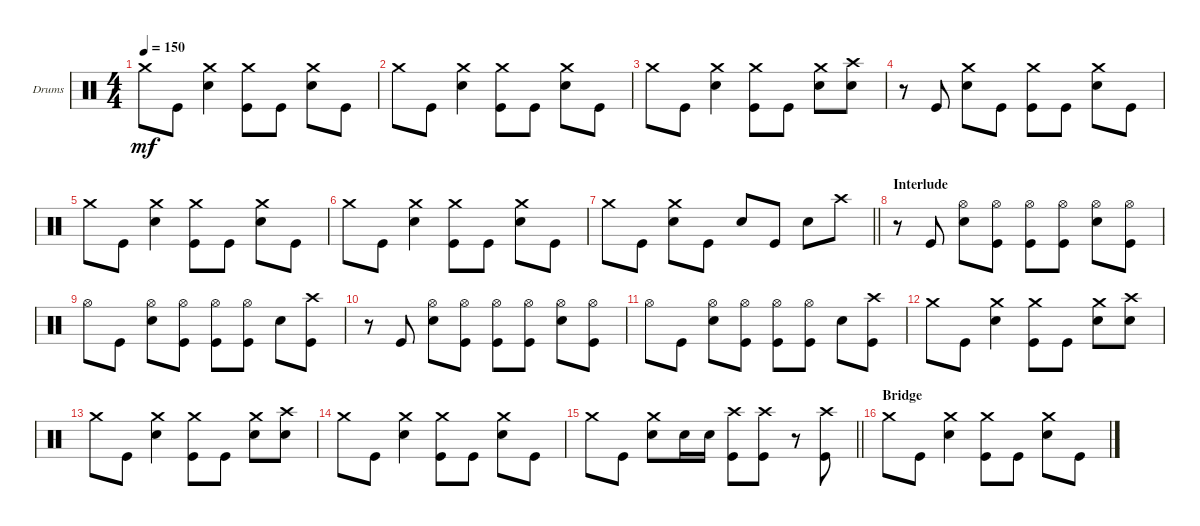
\defaultSystemsLayout 4
\bracketExtendMode groupsimilarinstruments
\firstSystemTrackNameOrientation horizontal
\otherSystemsTrackNameOrientation horizontal
\track ("Drums" "Drums") {instrument percussion}
\staff {score}
\articulation defaults
\ts (4 4)
\tempo 150
\clef neutral
\ks c "Crash medium (hit)".8{dy mf} "Kick (hit)".8
("Snare (hit) 2" "Crash medium (hit)").4 ("Kick (hit)" "Crash medium (hit)").8 "Kick (hit)".8 ("Snare (hit) 2" "Crash medium (hit)").8 "Kick (hit)".8 |
"Crash medium (hit)".8 "Kick (hit)".8 ("Snare (hit) 2" "Crash medium (hit)").4 ("Kick (hit)" "Crash medium (hit)").8 "Kick (hit)".8 ("Snare (hit) 2" "Crash medium (hit)").8 "Kick (hit)".8 |
"Crash medium (hit)".8 "Kick (hit)".8 ("Snare (hit) 2" "Crash medium (hit)").4 ("Kick (hit)" "Crash medium (hit)").8 "Kick (hit)".8 ("Snare (hit) 2" "Crash medium (hit)").8 ("Snare (hit) 2" "Crash high (hit)").8 |
r.8 "Kick (hit)".8 ("Snare (hit) 2" "Crash medium (hit)").8 "Kick (hit)".8 ("Kick (hit)" "Crash medium (hit)").8 "Kick (hit)".8 ("Snare (hit) 2" "Crash medium (hit)").8 "Kick (hit)".8 |
"Crash medium (hit)".8 "Kick (hit)".8 ("Snare (hit) 2" "Crash medium (hit)").4 ("Kick (hit)" "Crash medium (hit)").8 "Kick (hit)".8 ("Snare (hit) 2" "Crash medium (hit)").8 "Kick (hit)".8 |
"Crash medium (hit)".8 "Kick (hit)".8 ("Snare (hit) 2" "Crash medium (hit)").4 ("Kick (hit)" "Crash medium (hit)").8 "Kick (hit)".8 ("Snare (hit) 2" "Crash medium (hit)").8 "Kick (hit)".8 |
\barLineRight lightlight "Crash medium (hit)".8 "Kick (hit)".8
("Snare (hit) 2" "Crash medium (hit)").8 "Kick (hit)".8 "Snare (hit) 2".8 "Kick (hit)".8 "Snare (hit) 2".8 "Crash high (hit)".8 |
\section ("" "Interlude")
r.8 "Kick (hit)".8 ("Snare (hit) 2" "Hi-Hat (open)").8 ("Kick (hit)" "Hi-Hat (open)").8 ("Kick (hit)" "Hi-Hat (open)").8 ("Kick (hit)" "Hi-Hat (open)").8 ("Snare (hit) 2" "Hi-Hat (open)").8 ("Kick (hit)" "Hi-Hat (open)").8 |
"Hi-Hat (open)".8 "Kick (hit)".8 ("Snare (hit) 2" "Hi-Hat (open)").8 ("Kick (hit)" "Hi-Hat (open)").8 ("Kick (hit)" "Hi-Hat (open)").8 ("Kick (hit)" "Hi-Hat (open)").8 "Snare (hit) 2".8 ("Kick (hit)" "Crash high (hit)").8 |
r.8 "Kick (hit)".8 ("Snare (hit) 2" "Hi-Hat (open)").8 ("Kick (hit)" "Hi-Hat (open)").8 ("Kick (hit)" "Hi-Hat (open)").8 ("Kick (hit)" "Hi-Hat (open)").8 ("Snare (hit) 2" "Hi-Hat (open)").8 ("Kick (hit)" "Hi-Hat (open)").8 |
"Hi-Hat (open)".8 "Kick (hit)".8 ("Snare (hit) 2" "Hi-Hat (open)").8 ("Kick (hit)" "Hi-Hat (open)").8 ("Kick (hit)" "Hi-Hat (open)").8 ("Kick (hit)" "Hi-Hat (open)").8 "Snare (hit) 2".8 ("Kick (hit)" "Crash high (hit)").8 |
"Crash medium (hit)".8 "Kick (hit)".8 ("Snare (hit) 2" "Crash medium (hit)").4 ("Kick (hit)" "Crash medium (hit)").8 "Kick (hit)".8 ("Snare (hit) 2" "Crash medium (hit)").8 ("Snare (hit) 2" "Crash high (hit)").8 |
"Crash medium (hit)".8 "Kick (hit)".8 ("Snare (hit) 2" "Crash medium (hit)").4 ("Kick (hit)" "Crash medium (hit)").8 "Kick (hit)".8 ("Snare (hit) 2" "Crash medium (hit)").8 ("Snare (hit) 2" "Crash high (hit)").8 |
"Crash medium (hit)".8 "Kick (hit)".8 ("Snare (hit) 2" "Crash medium (hit)").4 ("Kick (hit)" "Crash medium (hit)").8 "Kick (hit)".8 ("Snare (hit) 2" "Crash medium (hit)").8 "Kick (hit)".8 |
\barLineRight lightlight "Crash medium (hit)".8 "Kick (hit)".8
("Snare (hit) 2" "Crash medium (hit)").8 "Snare (hit) 2".16 "Snare (hit) 2".16 ("Kick (hit)" "Crash high (hit)").8 ("Kick (hit)" "Crash high (hit)").8 r.8 ("Kick (hit)" "Crash high (hit)").8 |
\section ("" "Bridge")
"Crash medium (hit)".8 "Kick (hit)".8 ("Snare (hit) 2" "Crash medium (hit)").4 ("Kick (hit)" "Crash medium (hit)").8 "Kick (hit)".8 ("Snare (hit) 2" "Crash medium (hit)").8 "Kick (hit)".8
